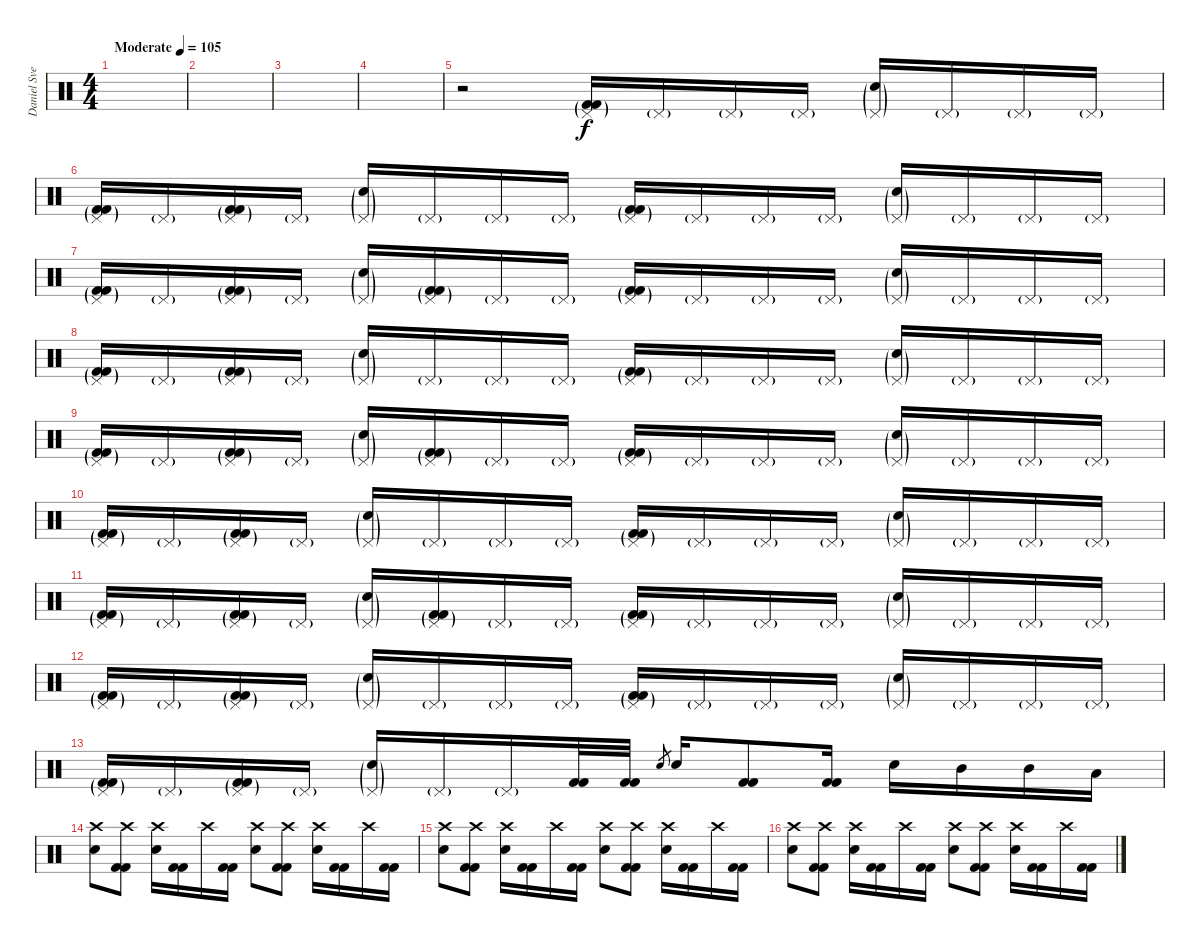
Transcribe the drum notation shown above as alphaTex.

\track ("Daniel Svensson" "Daniel Sve") {instrument percussion}
\staff {score}
\articulation defaults
\ts (4 4)
\tempo (105 "Moderate")
\clef neutral
\ks c
|
|
|
|
r.2 ("Pedal Hi-Hat (hit)"{g} "Kick (hit) 2"{g} "Kick (hit) 2"{g}).16 "Pedal Hi-Hat (hit)"{g}.16 "Pedal Hi-Hat (hit)"{g}.16 "Pedal Hi-Hat (hit)"{g}.16 ("Pedal Hi-Hat (hit)"{g} "Electric Snare (hit)"{g}).16 "Pedal Hi-Hat (hit)"{g}.16 "Pedal Hi-Hat (hit)"{g}.16 "Pedal Hi-Hat (hit)"{g}.16 |
("Pedal Hi-Hat (hit)"{g} "Kick (hit) 2"{g} "Kick (hit) 2"{g}).16 "Pedal Hi-Hat (hit)"{g}.16 ("Pedal Hi-Hat (hit)"{g} "Kick (hit) 2"{g} "Kick (hit) 2"{g}).16 "Pedal Hi-Hat (hit)"{g}.16 ("Pedal Hi-Hat (hit)"{g} "Electric Snare (hit)"{g}).16 "Pedal Hi-Hat (hit)"{g}.16 "Pedal Hi-Hat (hit)"{g}.16 "Pedal Hi-Hat (hit)"{g}.16 ("Pedal Hi-Hat (hit)"{g} "Kick (hit) 2"{g} "Kick (hit) 2"{g}).16 "Pedal Hi-Hat (hit)"{g}.16 "Pedal Hi-Hat (hit)"{g}.16 "Pedal Hi-Hat (hit)"{g}.16 ("Pedal Hi-Hat (hit)"{g} "Electric Snare (hit)"{g}).16 "Pedal Hi-Hat (hit)"{g}.16 "Pedal Hi-Hat (hit)"{g}.16 "Pedal Hi-Hat (hit)"{g}.16 |
("Pedal Hi-Hat (hit)"{g} "Kick (hit) 2"{g} "Kick (hit) 2"{g}).16 "Pedal Hi-Hat (hit)"{g}.16 ("Pedal Hi-Hat (hit)"{g} "Kick (hit) 2"{g} "Kick (hit) 2"{g}).16 "Pedal Hi-Hat (hit)"{g}.16 ("Pedal Hi-Hat (hit)"{g} "Electric Snare (hit)"{g}).16 ("Pedal Hi-Hat (hit)"{g} "Kick (hit) 2"{g} "Kick (hit) 2"{g}).16 "Pedal Hi-Hat (hit)"{g}.16 "Pedal Hi-Hat (hit)"{g}.16 ("Pedal Hi-Hat (hit)"{g} "Kick (hit) 2"{g} "Kick (hit) 2"{g}).16 "Pedal Hi-Hat (hit)"{g}.16 "Pedal Hi-Hat (hit)"{g}.16 "Pedal Hi-Hat (hit)"{g}.16 ("Pedal Hi-Hat (hit)"{g} "Electric Snare (hit)"{g}).16 "Pedal Hi-Hat (hit)"{g}.16 "Pedal Hi-Hat (hit)"{g}.16 "Pedal Hi-Hat (hit)"{g}.16 |
("Pedal Hi-Hat (hit)"{g} "Kick (hit) 2"{g} "Kick (hit) 2"{g}).16 "Pedal Hi-Hat (hit)"{g}.16 ("Pedal Hi-Hat (hit)"{g} "Kick (hit) 2"{g} "Kick (hit) 2"{g}).16 "Pedal Hi-Hat (hit)"{g}.16 ("Pedal Hi-Hat (hit)"{g} "Electric Snare (hit)"{g}).16 "Pedal Hi-Hat (hit)"{g}.16 "Pedal Hi-Hat (hit)"{g}.16 "Pedal Hi-Hat (hit)"{g}.16 ("Pedal Hi-Hat (hit)"{g} "Kick (hit) 2"{g} "Kick (hit) 2"{g}).16 "Pedal Hi-Hat (hit)"{g}.16 "Pedal Hi-Hat (hit)"{g}.16 "Pedal Hi-Hat (hit)"{g}.16 ("Pedal Hi-Hat (hit)"{g} "Electric Snare (hit)"{g}).16 "Pedal Hi-Hat (hit)"{g}.16 "Pedal Hi-Hat (hit)"{g}.16 "Pedal Hi-Hat (hit)"{g}.16 |
("Pedal Hi-Hat (hit)"{g} "Kick (hit) 2"{g} "Kick (hit) 2"{g}).16 "Pedal Hi-Hat (hit)"{g}.16 ("Pedal Hi-Hat (hit)"{g} "Kick (hit) 2"{g} "Kick (hit) 2"{g}).16 "Pedal Hi-Hat (hit)"{g}.16 ("Pedal Hi-Hat (hit)"{g} "Electric Snare (hit)"{g}).16 ("Pedal Hi-Hat (hit)"{g} "Kick (hit) 2"{g} "Kick (hit) 2"{g}).16 "Pedal Hi-Hat (hit)"{g}.16 "Pedal Hi-Hat (hit)"{g}.16 ("Pedal Hi-Hat (hit)"{g} "Kick (hit) 2"{g} "Kick (hit) 2"{g}).16 "Pedal Hi-Hat (hit)"{g}.16 "Pedal Hi-Hat (hit)"{g}.16 "Pedal Hi-Hat (hit)"{g}.16 ("Pedal Hi-Hat (hit)"{g} "Electric Snare (hit)"{g}).16 "Pedal Hi-Hat (hit)"{g}.16 "Pedal Hi-Hat (hit)"{g}.16 "Pedal Hi-Hat (hit)"{g}.16 |
("Pedal Hi-Hat (hit)"{g} "Kick (hit) 2"{g} "Kick (hit) 2"{g}).16 "Pedal Hi-Hat (hit)"{g}.16 ("Pedal Hi-Hat (hit)"{g} "Kick (hit) 2"{g} "Kick (hit) 2"{g}).16 "Pedal Hi-Hat (hit)"{g}.16 ("Pedal Hi-Hat (hit)"{g} "Electric Snare (hit)"{g}).16 "Pedal Hi-Hat (hit)"{g}.16 "Pedal Hi-Hat (hit)"{g}.16 "Pedal Hi-Hat (hit)"{g}.16 ("Pedal Hi-Hat (hit)"{g} "Kick (hit) 2"{g} "Kick (hit) 2"{g}).16 "Pedal Hi-Hat (hit)"{g}.16 "Pedal Hi-Hat (hit)"{g}.16 "Pedal Hi-Hat (hit)"{g}.16 ("Pedal Hi-Hat (hit)"{g} "Electric Snare (hit)"{g}).16 "Pedal Hi-Hat (hit)"{g}.16 "Pedal Hi-Hat (hit)"{g}.16 "Pedal Hi-Hat (hit)"{g}.16 |
("Pedal Hi-Hat (hit)"{g} "Kick (hit) 2"{g} "Kick (hit) 2"{g}).16 "Pedal Hi-Hat (hit)"{g}.16 ("Pedal Hi-Hat (hit)"{g} "Kick (hit) 2"{g} "Kick (hit) 2"{g}).16 "Pedal Hi-Hat (hit)"{g}.16 ("Pedal Hi-Hat (hit)"{g} "Electric Snare (hit)"{g}).16 ("Pedal Hi-Hat (hit)"{g} "Kick (hit) 2"{g} "Kick (hit) 2"{g}).16 "Pedal Hi-Hat (hit)"{g}.16 "Pedal Hi-Hat (hit)"{g}.16 ("Pedal Hi-Hat (hit)"{g} "Kick (hit) 2"{g} "Kick (hit) 2"{g}).16 "Pedal Hi-Hat (hit)"{g}.16 "Pedal Hi-Hat (hit)"{g}.16 "Pedal Hi-Hat (hit)"{g}.16 ("Pedal Hi-Hat (hit)"{g} "Electric Snare (hit)"{g}).16 "Pedal Hi-Hat (hit)"{g}.16 "Pedal Hi-Hat (hit)"{g}.16 "Pedal Hi-Hat (hit)"{g}.16 |
("Pedal Hi-Hat (hit)"{g} "Kick (hit) 2"{g} "Kick (hit) 2"{g}).16 "Pedal Hi-Hat (hit)"{g}.16 ("Pedal Hi-Hat (hit)"{g} "Kick (hit) 2"{g} "Kick (hit) 2"{g}).16 "Pedal Hi-Hat (hit)"{g}.16 ("Pedal Hi-Hat (hit)"{g} "Electric Snare (hit)"{g}).16 "Pedal Hi-Hat (hit)"{g}.16 "Pedal Hi-Hat (hit)"{g}.16 "Pedal Hi-Hat (hit)"{g}.16 ("Pedal Hi-Hat (hit)"{g} "Kick (hit) 2"{g} "Kick (hit) 2"{g}).16 "Pedal Hi-Hat (hit)"{g}.16 "Pedal Hi-Hat (hit)"{g}.16 "Pedal Hi-Hat (hit)"{g}.16 ("Pedal Hi-Hat (hit)"{g} "Electric Snare (hit)"{g}).16 "Pedal Hi-Hat (hit)"{g}.16 "Pedal Hi-Hat (hit)"{g}.16 "Pedal Hi-Hat (hit)"{g}.16 |
("Pedal Hi-Hat (hit)"{g} "Kick (hit) 2"{g} "Kick (hit) 2"{g}).16 "Pedal Hi-Hat (hit)"{g}.16 ("Pedal Hi-Hat (hit)"{g} "Kick (hit) 2"{g} "Kick (hit) 2"{g}).16 "Pedal Hi-Hat (hit)"{g}.16 ("Pedal Hi-Hat (hit)"{g} "Electric Snare (hit)"{g}).16 "Pedal Hi-Hat (hit)"{g}.16 "Pedal Hi-Hat (hit)"{g}.16 ("Kick (hit) 2" "Kick (hit) 2").32{dy f} ("Kick (hit) 2" "Kick (hit) 2").32 "Electric Snare (hit)".8{gr} "Electric Snare (hit)".16 ("Kick (hit) 2" "Kick (hit) 2").8 ("Kick (hit) 2" "Kick (hit) 2").16 "Electric Snare (hit)".16 "Mid Tom (hit)".16 "Mid Tom (hit)".16 "Low Tom (hit)".16 |
("Crash high (hit)" "Electric Snare (hit)").8 ("Crash high (hit)" "Kick (hit) 2" "Kick (hit) 2").8 ("Crash high (hit)" "Electric Snare (hit)").16 ("Kick (hit) 2" "Kick (hit) 2").16 "Crash high (hit)".16 ("Kick (hit) 2" "Kick (hit) 2").16 ("Crash high (hit)" "Electric Snare (hit)").8 ("Crash high (hit)" "Kick (hit) 2" "Kick (hit) 2").8 ("Crash high (hit)" "Electric Snare (hit)").16 ("Kick (hit) 2" "Kick (hit) 2").16 "Crash high (hit)".16 ("Kick (hit) 2" "Kick (hit) 2").16 |
("Crash high (hit)" "Electric Snare (hit)").8 ("Crash high (hit)" "Kick (hit) 2" "Kick (hit) 2").8 ("Crash high (hit)" "Electric Snare (hit)").16 ("Kick (hit) 2" "Kick (hit) 2").16 "Crash high (hit)".16 ("Kick (hit) 2" "Kick (hit) 2").16 ("Crash high (hit)" "Electric Snare (hit)").8 ("Crash high (hit)" "Kick (hit) 2" "Kick (hit) 2").8 ("Crash high (hit)" "Electric Snare (hit)").16 ("Kick (hit) 2" "Kick (hit) 2").16 "Crash high (hit)".16 ("Kick (hit) 2" "Kick (hit) 2").16 |
("Crash high (hit)" "Electric Snare (hit)").8 ("Crash high (hit)" "Kick (hit) 2" "Kick (hit) 2").8 ("Crash high (hit)" "Electric Snare (hit)").16 ("Kick (hit) 2" "Kick (hit) 2").16 "Crash high (hit)".16 ("Kick (hit) 2" "Kick (hit) 2").16 ("Crash high (hit)" "Electric Snare (hit)").8 ("Crash high (hit)" "Kick (hit) 2" "Kick (hit) 2").8 ("Crash high (hit)" "Electric Snare (hit)").16 ("Kick (hit) 2" "Kick (hit) 2").16 "Crash high (hit)".16 ("Kick (hit) 2" "Kick (hit) 2").16
